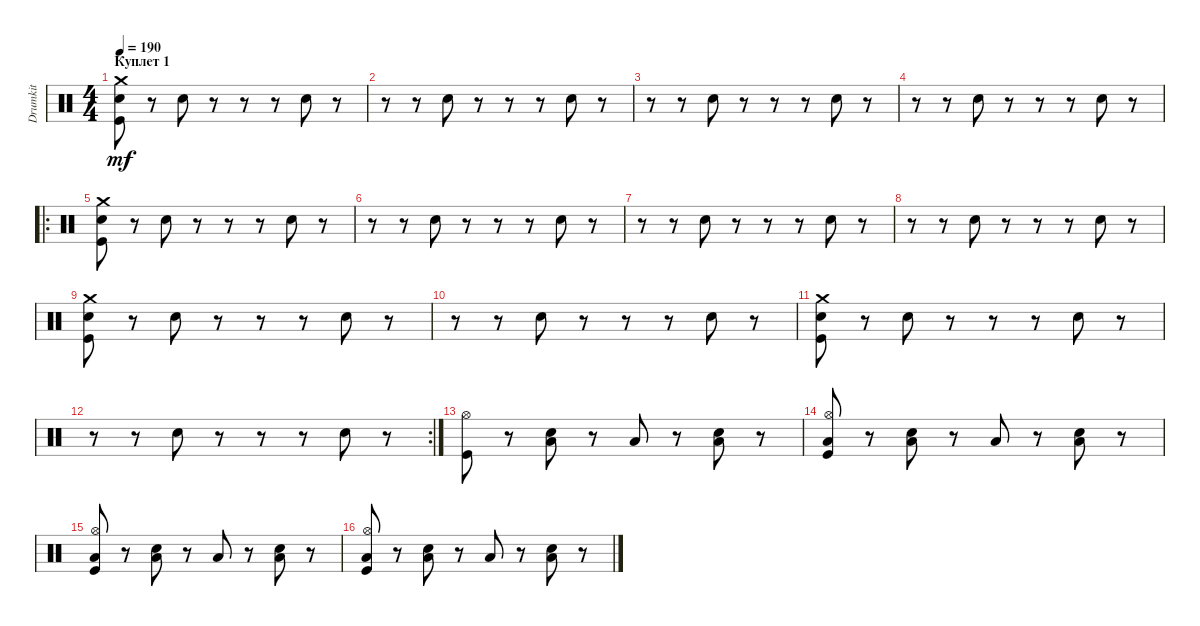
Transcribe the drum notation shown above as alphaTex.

\track ("Drumkit" "Drumkit") {instrument percussion}
\staff {score}
\articulation defaults
\ts (4 4)
\section ("" "Куплет 1")
\tempo 190
\clef neutral
\ks c
("Crash medium (hit)" "Snare (hit) 2" "Kick (hit)").8{dy mf} r.8 "Snare (hit) 2".8 r.8 r.8 r.8 "Snare (hit) 2".8 r.8 |
r.8 r.8 "Snare (hit) 2".8 r.8 r.8 r.8 "Snare (hit) 2".8 r.8 |
r.8 r.8 "Snare (hit) 2".8 r.8 r.8 r.8 "Snare (hit) 2".8 r.8 |
r.8 r.8 "Snare (hit) 2".8 r.8 r.8 r.8 "Snare (hit) 2".8 r.8 |
\ro
("Crash medium (hit)" "Snare (hit) 2" "Kick (hit)").8 r.8 "Snare (hit) 2".8 r.8 r.8 r.8 "Snare (hit) 2".8 r.8 |
r.8 r.8 "Snare (hit) 2".8 r.8 r.8 r.8 "Snare (hit) 2".8 r.8 |
r.8 r.8 "Snare (hit) 2".8 r.8 r.8 r.8 "Snare (hit) 2".8 r.8 |
r.8 r.8 "Snare (hit) 2".8 r.8 r.8 r.8 "Snare (hit) 2".8 r.8 |
("Crash medium (hit)" "Snare (hit) 2" "Kick (hit)").8 r.8 "Snare (hit) 2".8 r.8 r.8 r.8 "Snare (hit) 2".8 r.8 |
r.8 r.8 "Snare (hit) 2".8 r.8 r.8 r.8 "Snare (hit) 2".8 r.8 |
("Crash medium (hit)" "Snare (hit) 2" "Kick (hit)").8 r.8 "Snare (hit) 2".8 r.8 r.8 r.8 "Snare (hit) 2".8 r.8 |
\rc 2
r.8 r.8 "Snare (hit) 2".8 r.8 r.8 r.8 "Snare (hit) 2".8 r.8 |
("Kick (hit)" "Hi-Hat (open)").8 r.8 ("Snare (hit) 2" "Low Floor Tom (hit)").8 r.8 "Low Floor Tom (hit)".8 r.8 ("Snare (hit) 2" "Low Floor Tom (hit)").8 r.8 |
("Kick (hit)" "Hi-Hat (open)" "Low Floor Tom (hit)").8 r.8 ("Snare (hit) 2" "Low Floor Tom (hit)").8 r.8 "Low Floor Tom (hit)".8 r.8 ("Snare (hit) 2" "Low Floor Tom (hit)").8 r.8 |
("Kick (hit)" "Hi-Hat (open)" "Low Floor Tom (hit)").8 r.8 ("Snare (hit) 2" "Low Floor Tom (hit)").8 r.8 "Low Floor Tom (hit)".8 r.8 ("Snare (hit) 2" "Low Floor Tom (hit)").8 r.8 |
("Kick (hit)" "Hi-Hat (open)" "Low Floor Tom (hit)").8 r.8 ("Snare (hit) 2" "Low Floor Tom (hit)").8 r.8 "Low Floor Tom (hit)".8 r.8 ("Snare (hit) 2" "Low Floor Tom (hit)").8 r.8
